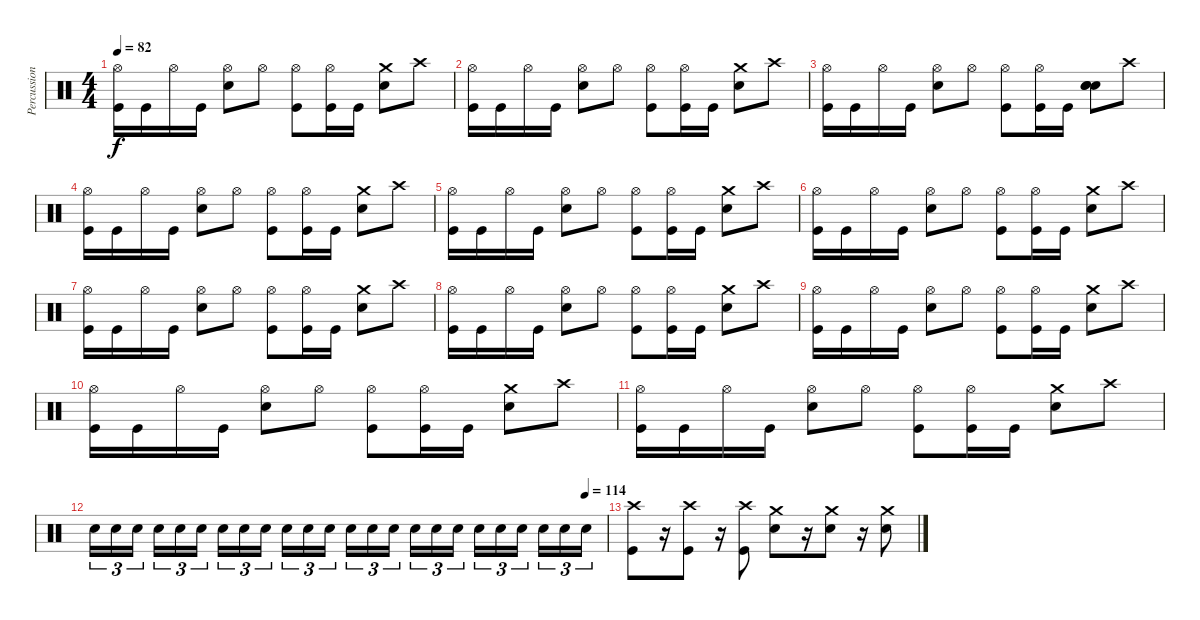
\track ("Percussion" "Percussion") {instrument percussion}
\staff {score}
\articulation defaults
\ts (4 4)
\tempo 82
\clef neutral
\ks c
("Hi-Hat (open)" "Kick (hit)").16{dy f} "Kick (hit)".16 "Hi-Hat (open)".16 "Kick (hit)".16 ("Hi-Hat (open)" "Snare (hit) 2").8 "Hi-Hat (open)".8 ("Hi-Hat (open)" "Kick (hit)").8 ("Hi-Hat (open)" "Kick (hit)").16 "Kick (hit)".16 ("Crash medium (hit)" "Snare (hit) 2").8 "Crash high (hit)".8 |
("Hi-Hat (open)" "Kick (hit)").16 "Kick (hit)".16 "Hi-Hat (open)".16 "Kick (hit)".16 ("Hi-Hat (open)" "Snare (hit) 2").8 "Hi-Hat (open)".8 ("Hi-Hat (open)" "Kick (hit)").8 ("Hi-Hat (open)" "Kick (hit)").16 "Kick (hit)".16 ("Crash medium (hit)" "Snare (hit) 2").8 "Crash high (hit)".8 |
("Hi-Hat (open)" "Kick (hit)").16 "Kick (hit)".16 "Hi-Hat (open)".16 "Kick (hit)".16 ("Hi-Hat (open)" "Snare (hit) 2").8 "Hi-Hat (open)".8 ("Hi-Hat (open)" "Kick (hit)").8 ("Hi-Hat (open)" "Kick (hit)").16 "Kick (hit)".16 ("Electric Snare (hit)" "Snare (hit) 2" "Electric Snare (hit)").8 "Crash high (hit)".8 |
("Hi-Hat (open)" "Kick (hit)").16 "Kick (hit)".16 "Hi-Hat (open)".16 "Kick (hit)".16 ("Hi-Hat (open)" "Snare (hit) 2").8 "Hi-Hat (open)".8 ("Hi-Hat (open)" "Kick (hit)").8 ("Hi-Hat (open)" "Kick (hit)").16 "Kick (hit)".16 ("Crash medium (hit)" "Snare (hit) 2").8 "Crash high (hit)".8 |
("Hi-Hat (open)" "Kick (hit)").16 "Kick (hit)".16 "Hi-Hat (open)".16 "Kick (hit)".16 ("Hi-Hat (open)" "Snare (hit) 2").8 "Hi-Hat (open)".8 ("Hi-Hat (open)" "Kick (hit)").8 ("Hi-Hat (open)" "Kick (hit)").16 "Kick (hit)".16 ("Crash medium (hit)" "Snare (hit) 2").8 "Crash high (hit)".8 |
("Hi-Hat (open)" "Kick (hit)").16 "Kick (hit)".16 "Hi-Hat (open)".16 "Kick (hit)".16 ("Hi-Hat (open)" "Snare (hit) 2").8 "Hi-Hat (open)".8 ("Hi-Hat (open)" "Kick (hit)").8 ("Hi-Hat (open)" "Kick (hit)").16 "Kick (hit)".16 ("Crash medium (hit)" "Snare (hit) 2").8 "Crash high (hit)".8 |
("Hi-Hat (open)" "Kick (hit)").16 "Kick (hit)".16 "Hi-Hat (open)".16 "Kick (hit)".16 ("Hi-Hat (open)" "Snare (hit) 2").8 "Hi-Hat (open)".8 ("Hi-Hat (open)" "Kick (hit)").8 ("Hi-Hat (open)" "Kick (hit)").16 "Kick (hit)".16 ("Crash medium (hit)" "Snare (hit) 2").8 "Crash high (hit)".8 |
("Hi-Hat (open)" "Kick (hit)").16 "Kick (hit)".16 "Hi-Hat (open)".16 "Kick (hit)".16 ("Hi-Hat (open)" "Snare (hit) 2").8 "Hi-Hat (open)".8 ("Hi-Hat (open)" "Kick (hit)").8 ("Hi-Hat (open)" "Kick (hit)").16 "Kick (hit)".16 ("Crash medium (hit)" "Snare (hit) 2").8 "Crash high (hit)".8 |
("Hi-Hat (open)" "Kick (hit)").16 "Kick (hit)".16 "Hi-Hat (open)".16 "Kick (hit)".16 ("Hi-Hat (open)" "Snare (hit) 2").8 "Hi-Hat (open)".8 ("Hi-Hat (open)" "Kick (hit)").8 ("Hi-Hat (open)" "Kick (hit)").16 "Kick (hit)".16 ("Crash medium (hit)" "Snare (hit) 2").8 "Crash high (hit)".8 |
("Hi-Hat (open)" "Kick (hit)").16 "Kick (hit)".16 "Hi-Hat (open)".16 "Kick (hit)".16 ("Hi-Hat (open)" "Snare (hit) 2").8 "Hi-Hat (open)".8 ("Hi-Hat (open)" "Kick (hit)").8 ("Hi-Hat (open)" "Kick (hit)").16 "Kick (hit)".16 ("Crash medium (hit)" "Snare (hit) 2").8 "Crash high (hit)".8 |
("Hi-Hat (open)" "Kick (hit)").16 "Kick (hit)".16 "Hi-Hat (open)".16 "Kick (hit)".16 ("Hi-Hat (open)" "Snare (hit) 2").8 "Hi-Hat (open)".8 ("Hi-Hat (open)" "Kick (hit)").8 ("Hi-Hat (open)" "Kick (hit)").16 "Kick (hit)".16 ("Crash medium (hit)" "Snare (hit) 2").8 "Crash high (hit)".8 |
\tempo (114 0.9583333333333334)
"Snare (hit) 2".16{tu (3 2)} "Snare (hit) 2".16{tu (3 2)} "Snare (hit) 2".16{tu (3 2)} "Snare (hit) 2".16{tu (3 2)} "Snare (hit) 2".16{tu (3 2)} "Snare (hit) 2".16{tu (3 2)} "Snare (hit) 2".16{tu (3 2)} "Snare (hit) 2".16{tu (3 2)} "Snare (hit) 2".16{tu (3 2)} "Snare (hit) 2".16{tu (3 2)} "Snare (hit) 2".16{tu (3 2)} "Snare (hit) 2".16{tu (3 2)} "Snare (hit) 2".16{tu (3 2)} "Snare (hit) 2".16{tu (3 2)} "Snare (hit) 2".16{tu (3 2)} "Snare (hit) 2".16{tu (3 2)} "Snare (hit) 2".16{tu (3 2)} "Snare (hit) 2".16{tu (3 2)} "Snare (hit) 2".16{tu (3 2)} "Snare (hit) 2".16{tu (3 2)} "Snare (hit) 2".16{tu (3 2)} "Snare (hit) 2".16{tu (3 2)} "Snare (hit) 2".16{tu (3 2)} "Snare (hit) 2".16{tu (3 2)} |
("Crash high (hit)" "Kick (hit)").8 r.16 ("Crash high (hit)" "Kick (hit)").8 r.16 ("Crash high (hit)" "Kick (hit)").8 ("Crash medium (hit)" "Snare (hit) 2").8 r.16 ("Crash medium (hit)" "Snare (hit) 2").8 r.16 ("Crash medium (hit)" "Snare (hit) 2").8
